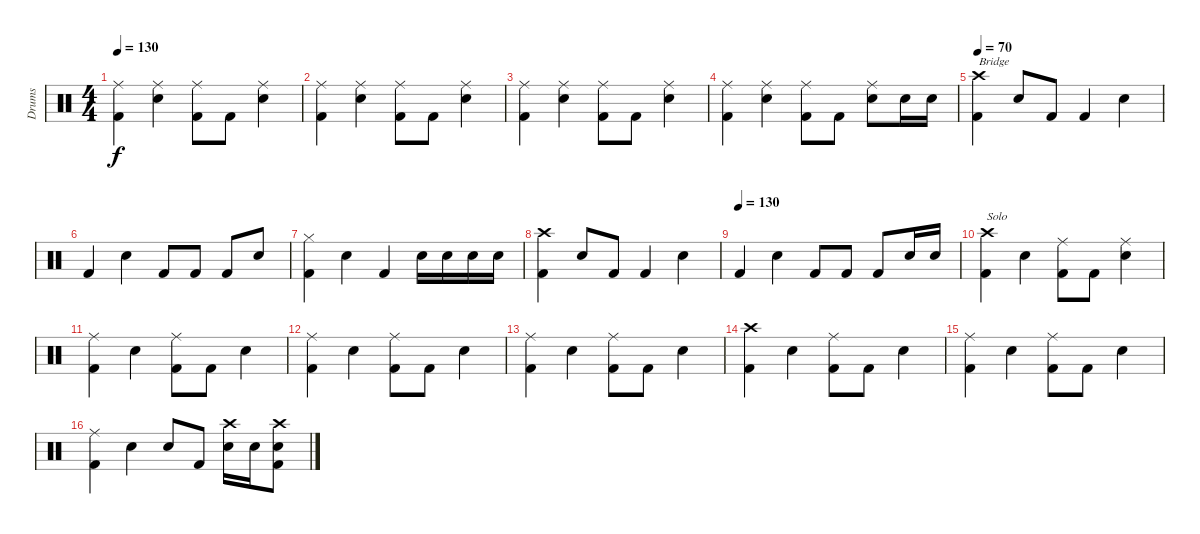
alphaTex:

\track ("Drums" "Drums") {instrument percussion}
\staff {score}
\articulation defaults
\ts (4 4)
\tempo 130
\clef neutral
\ks c
("Ride (middle)" "Kick (hit) 2").4{dy f} ("Ride (middle)" "Snare (hit) 2").4 ("Ride (middle)" "Kick (hit) 2").8 "Kick (hit) 2".8 ("Ride (middle)" "Snare (hit) 2").4 |
("Ride (middle)" "Kick (hit) 2").4 ("Ride (middle)" "Snare (hit) 2").4 ("Ride (middle)" "Kick (hit) 2").8 "Kick (hit) 2".8 ("Ride (middle)" "Snare (hit) 2").4 |
("Ride (middle)" "Kick (hit) 2").4 ("Ride (middle)" "Snare (hit) 2").4 ("Ride (middle)" "Kick (hit) 2").8 "Kick (hit) 2".8 ("Ride (middle)" "Snare (hit) 2").4 |
("Ride (middle)" "Kick (hit) 2").4 ("Ride (middle)" "Snare (hit) 2").4 ("Ride (middle)" "Kick (hit) 2").8 "Kick (hit) 2".8 ("Ride (middle)" "Snare (hit) 2").8 "Snare (hit) 2".16 "Snare (hit) 2".16 |
\tempo 70
("Crash high (hit)" "Kick (hit) 2").4{txt "Bridge"} "Snare (hit) 2".8 "Kick (hit) 2".8 "Kick (hit) 2".4 "Snare (hit) 2".4 |
"Kick (hit) 2".4 "Snare (hit) 2".4 "Kick (hit) 2".8 "Kick (hit) 2".8 "Kick (hit) 2".8 "Snare (hit) 2".8 |
("Hi-Hat (closed)" "Kick (hit) 2").4 "Snare (hit) 2".4 "Kick (hit) 2".4 "Snare (hit) 2".16 "Snare (hit) 2".16 "Snare (hit) 2".16 "Snare (hit) 2".16 |
("Crash high (hit)" "Kick (hit) 2").4 "Snare (hit) 2".8 "Kick (hit) 2".8 "Kick (hit) 2".4 "Snare (hit) 2".4 |
\tempo (130)
"Kick (hit) 2".4 "Snare (hit) 2".4 "Kick (hit) 2".8 "Kick (hit) 2".8 "Kick (hit) 2".8 "Snare (hit) 2".16 "Snare (hit) 2".16 |
("Crash high (hit)" "Kick (hit) 2").4{txt "Solo"} "Snare (hit) 2".4 ("Ride (middle)" "Kick (hit) 2").8 "Kick (hit) 2".8 ("Ride (middle)" "Snare (hit) 2").4 |
("Ride (middle)" "Kick (hit) 2").4 "Snare (hit) 2".4 ("Ride (middle)" "Kick (hit) 2").8 "Kick (hit) 2".8 "Snare (hit) 2".4 |
("Ride (middle)" "Kick (hit) 2").4 "Snare (hit) 2".4 ("Ride (middle)" "Kick (hit) 2").8 "Kick (hit) 2".8 "Snare (hit) 2".4 |
("Ride (middle)" "Kick (hit) 2").4 "Snare (hit) 2".4 ("Ride (middle)" "Kick (hit) 2").8 "Kick (hit) 2".8 "Snare (hit) 2".4 |
("Crash high (hit)" "Kick (hit) 2").4 "Snare (hit) 2".4 ("Ride (middle)" "Kick (hit) 2").8 "Kick (hit) 2".8 "Snare (hit) 2".4 |
("Ride (middle)" "Kick (hit) 2").4 "Snare (hit) 2".4 ("Ride (middle)" "Kick (hit) 2").8 "Kick (hit) 2".8 "Snare (hit) 2".4 |
("Ride (middle)" "Kick (hit) 2").4 "Snare (hit) 2".4 "Snare (hit) 2".8 "Kick (hit) 2".8 ("Crash high (hit)" "Snare (hit) 2").16 "Snare (hit) 2".16 ("Crash high (hit)" "Snare (hit) 2" "Kick (hit) 2").8
